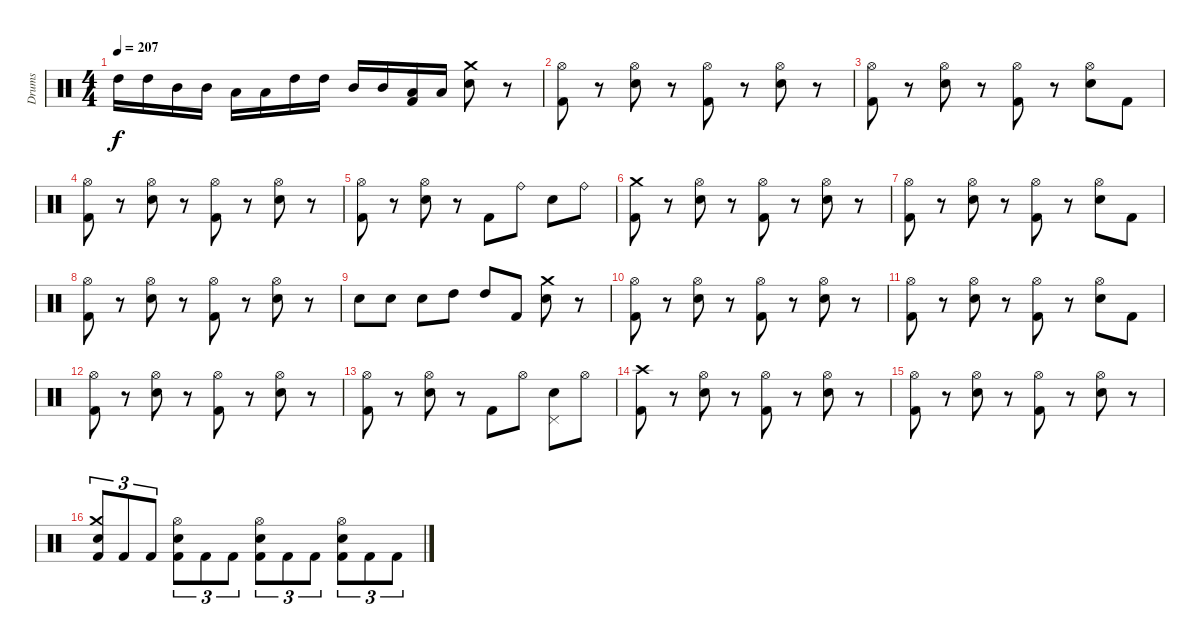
\track ("Drums" "Drums") {instrument percussion}
\staff {score}
\articulation defaults
\ts (4 4)
\tempo 207
\clef neutral
\ks c "High Tom (hit)".16{dy f} "High Tom (hit)".16 "Mid Tom (hit)".16 "Mid Tom (hit)".16 "Low Tom (hit)".16 "Low Tom (hit)".16 "High Tom (hit)".16 "High Tom (hit)".16 "Mid Tom (hit)".16 "Mid Tom (hit)".16
("Low Tom (hit)" "Kick (hit) 2").16 "Low Tom (hit)".16 ("Crash medium (hit)" "Electric Snare (hit)").8 r.8 |
("Hi-Hat (open)" "Kick (hit) 2").8 r.8 ("Hi-Hat (open)" "Electric Snare (hit)").8 r.8 ("Hi-Hat (open)" "Kick (hit) 2").8 r.8 ("Hi-Hat (open)" "Electric Snare (hit)").8 r.8 |
("Hi-Hat (open)" "Kick (hit) 2").8 r.8 ("Hi-Hat (open)" "Electric Snare (hit)").8 r.8 ("Hi-Hat (open)" "Kick (hit) 2").8 r.8 ("Hi-Hat (open)" "Electric Snare (hit)").8 "Kick (hit) 2".8 |
("Hi-Hat (open)" "Kick (hit) 2").8 r.8 ("Hi-Hat (open)" "Electric Snare (hit)").8 r.8 ("Hi-Hat (open)" "Kick (hit) 2").8 r.8 ("Hi-Hat (open)" "Electric Snare (hit)").8 r.8 |
("Hi-Hat (open)" "Kick (hit) 2").8 r.8 ("Hi-Hat (open)" "Electric Snare (hit)").8 r.8 "Kick (hit) 2".8 "Ride (bell)".8 "Electric Snare (hit)".8 "Ride (bell)".8 |
("Crash medium (hit)" "Kick (hit) 2").8 r.8 ("Hi-Hat (open)" "Electric Snare (hit)").8 r.8 ("Hi-Hat (open)" "Kick (hit) 2").8 r.8 ("Hi-Hat (open)" "Electric Snare (hit)").8 r.8 |
("Hi-Hat (open)" "Kick (hit) 2").8 r.8 ("Hi-Hat (open)" "Electric Snare (hit)").8 r.8 ("Hi-Hat (open)" "Kick (hit) 2").8 r.8 ("Hi-Hat (open)" "Electric Snare (hit)").8 "Kick (hit) 2".8 |
("Hi-Hat (open)" "Kick (hit) 2").8 r.8 ("Hi-Hat (open)" "Electric Snare (hit)").8 r.8 ("Hi-Hat (open)" "Kick (hit) 2").8 r.8 ("Hi-Hat (open)" "Electric Snare (hit)").8 r.8 |
"Electric Snare (hit)".8 "Electric Snare (hit)".8 "Electric Snare (hit)".8 "High Tom (hit)".8 "High Tom (hit)".8 "Kick (hit) 2".8 ("Crash medium (hit)" "Electric Snare (hit)").8 r.8 |
("Hi-Hat (open)" "Kick (hit) 2").8 r.8 ("Hi-Hat (open)" "Electric Snare (hit)").8 r.8 ("Hi-Hat (open)" "Kick (hit) 2").8 r.8 ("Hi-Hat (open)" "Electric Snare (hit)").8 r.8 |
("Hi-Hat (open)" "Kick (hit) 2").8 r.8 ("Hi-Hat (open)" "Electric Snare (hit)").8 r.8 ("Hi-Hat (open)" "Kick (hit) 2").8 r.8 ("Hi-Hat (open)" "Electric Snare (hit)").8 "Kick (hit) 2".8 |
("Hi-Hat (open)" "Kick (hit) 2").8 r.8 ("Hi-Hat (open)" "Electric Snare (hit)").8 r.8 ("Hi-Hat (open)" "Kick (hit) 2").8 r.8 ("Hi-Hat (open)" "Electric Snare (hit)").8 r.8 |
("Hi-Hat (open)" "Kick (hit) 2").8 r.8 ("Hi-Hat (open)" "Electric Snare (hit)").8 r.8 "Kick (hit) 2".8 "Hi-Hat (open)".8 ("Pedal Hi-Hat (hit)" "Electric Snare (hit)").8 "Hi-Hat (open)".8 |
("Crash high (hit)" "Kick (hit) 2").8 r.8 ("Hi-Hat (open)" "Electric Snare (hit)").8 r.8 ("Hi-Hat (open)" "Kick (hit) 2").8 r.8 ("Hi-Hat (open)" "Electric Snare (hit)").8 r.8 |
("Hi-Hat (open)" "Kick (hit) 2").8 r.8 ("Hi-Hat (open)" "Electric Snare (hit)").8 r.8 ("Hi-Hat (open)" "Kick (hit) 2").8 r.8 ("Hi-Hat (open)" "Electric Snare (hit)").8 r.8 |
("Crash medium (hit)" "Electric Snare (hit)" "Kick (hit) 2").8{tu (3 2)} "Kick (hit) 2".8{tu (3 2)} "Kick (hit) 2".8{tu (3 2)} ("Hi-Hat (open)" "Electric Snare (hit)" "Kick (hit) 2").8{tu (3 2)} "Kick (hit) 2".8{tu (3 2)} "Kick (hit) 2".8{tu (3 2)} ("Hi-Hat (open)" "Electric Snare (hit)" "Kick (hit) 2").8{tu (3 2)} "Kick (hit) 2".8{tu (3 2)} "Kick (hit) 2".8{tu (3 2)} ("Hi-Hat (open)" "Electric Snare (hit)" "Kick (hit) 2").8{tu (3 2)} "Kick (hit) 2".8{tu (3 2)} "Kick (hit) 2".8{tu (3 2)}
